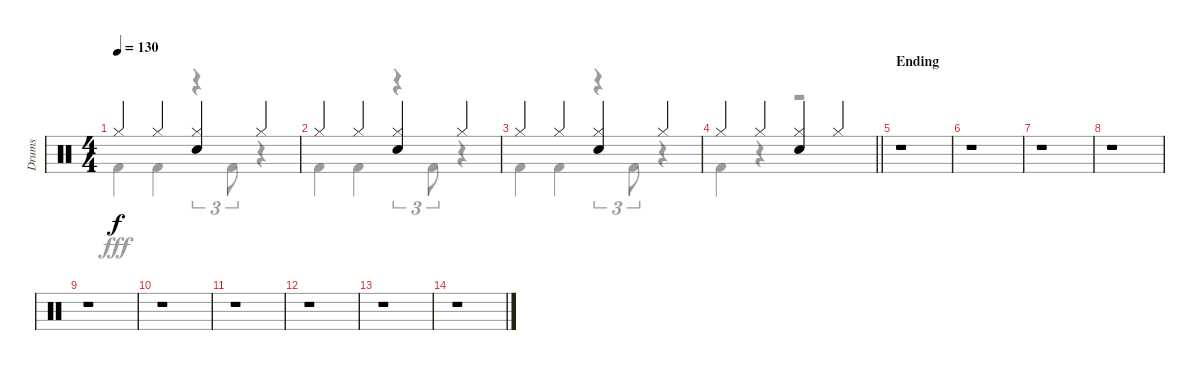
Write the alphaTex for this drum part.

\track ("Drums" "Drums") {instrument percussion}
\staff {score}
\articulation defaults
\voice
\ts (4 4)
\tempo 130
\clef neutral
\ks c "Hi-Hat (closed)".4{dy f} "Hi-Hat (closed)".4
("Hi-Hat (closed)" "Snare (hit) 2").4 "Hi-Hat (closed)".4 |
"Hi-Hat (closed)".4 "Hi-Hat (closed)".4 ("Hi-Hat (closed)" "Snare (hit) 2").4 "Hi-Hat (closed)".4 |
"Hi-Hat (closed)".4 "Hi-Hat (closed)".4 ("Hi-Hat (closed)" "Snare (hit) 2").4 "Hi-Hat (closed)".4 |
\barLineRight lightlight "Hi-Hat (closed)".4 "Hi-Hat (closed)".4
("Hi-Hat (closed)" "Snare (hit) 2").4 "Hi-Hat (closed)".4 |
\section ("" "Ending")
r.1 |
r.1 |
r.1 |
r.1 |
r.1 |
r.1 |
r.1 |
r.1 |
r.1 |
r.1
\voice
\clef neutral
\ottava regular
\simile none
\ks c "Kick (hit) 2".4{dy fff} "Kick (hit) 2".4
r.4{tu (3 2)} "Kick (hit) 2".8{tu (3 2)} r.4 |
"Kick (hit) 2".4 "Kick (hit) 2".4 r.4{tu (3 2)} "Kick (hit) 2".8{tu (3 2)} r.4 |
"Kick (hit) 2".4 "Kick (hit) 2".4 r.4{tu (3 2)} "Kick (hit) 2".8{tu (3 2)} r.4 |
\barLineRight lightlight "Kick (hit) 2".4
r.4 r.2 |
r.1 |
r.1 |
r.1 |
r.1 |
r.1 |
r.1 |
r.1 |
r.1 |
r.1 |
r.1
